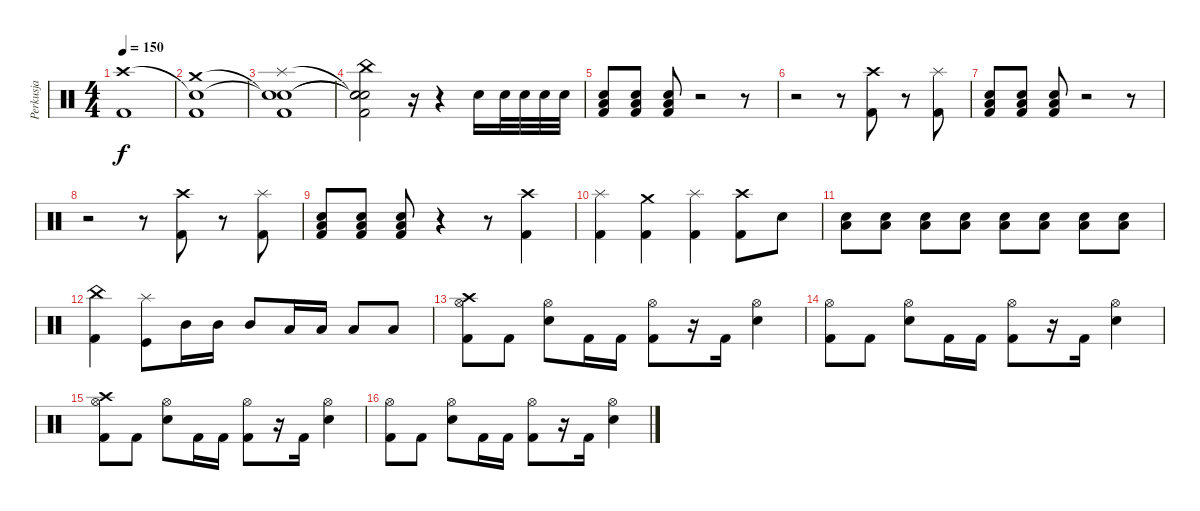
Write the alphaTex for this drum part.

\track ("Perkusja" "Perkusja") {instrument percussion}
\staff {score}
\articulation defaults
\ts (4 4)
\tempo 150
\clef neutral
\ks c
("Kick (hit) 2" "Crash high (hit)").1{dy f} |
("Kick (hit) 2" "Snare (hit)"{t} "Crash medium (hit)").1 |
("Kick (hit) 2" "Snare (hit)"{t} "Snare (hit)"{t} "Splash (hit)").1 |
("Kick (hit) 2" "Snare (hit)"{t} "Snare (hit)"{t} "Snare (hit)"{t} "China (hit)").2 r.16 r.4 "Electric Snare (hit)".16 "Electric Snare (hit)".32 "Electric Snare (hit)".32 "Electric Snare (hit)".32 "Electric Snare (hit)".32 |
("Kick (hit) 2" "Low Floor Tom (hit)" "Electric Snare (hit)").8 ("Kick (hit) 2" "Low Floor Tom (hit)" "Electric Snare (hit)").8 ("Kick (hit) 2" "Low Floor Tom (hit)" "Electric Snare (hit)").8 r.2 r.8 |
r.2 r.8 ("Kick (hit) 2" "Crash high (hit)").8 r.8 ("Kick (hit) 2" "Splash (hit)").8 |
("Kick (hit) 2" "Low Floor Tom (hit)" "Electric Snare (hit)").8 ("Kick (hit) 2" "Low Floor Tom (hit)" "Electric Snare (hit)").8 ("Kick (hit) 2" "Low Floor Tom (hit)" "Electric Snare (hit)").8 r.2 r.8 |
r.2 r.8 ("Kick (hit) 2" "Crash high (hit)").8 r.8 ("Kick (hit) 2" "Splash (hit)").8 |
("Kick (hit) 2" "Low Floor Tom (hit)" "Electric Snare (hit)").8 ("Kick (hit) 2" "Low Floor Tom (hit)" "Electric Snare (hit)").8 ("Kick (hit) 2" "Low Floor Tom (hit)" "Electric Snare (hit)").8 r.4 r.8 ("Kick (hit) 2" "Crash high (hit)").4 |
("Kick (hit) 2" "Splash (hit)").4 ("Kick (hit) 2" "Crash medium (hit)").4 ("Kick (hit) 2" "Splash (hit)").4 ("Kick (hit) 2" "Crash high (hit)").8 "Snare (hit) 2".8{volume 6} |
("Low Floor Tom (hit)" "Electric Snare (hit)").8{volume 16} ("Low Floor Tom (hit)" "Electric Snare (hit)").8 ("Low Floor Tom (hit)" "Electric Snare (hit)").8 ("Low Floor Tom (hit)" "Electric Snare (hit)").8 ("Low Floor Tom (hit)" "Electric Snare (hit)").8 ("Low Floor Tom (hit)" "Electric Snare (hit)").8 ("Low Floor Tom (hit)" "Electric Snare (hit)").8 ("Low Floor Tom (hit)" "Electric Snare (hit)").8 |
("Kick (hit) 2" "China (hit)").4 ("Kick (hit)" "Splash (hit)").8 "Mid Tom (hit)".16 "Mid Tom (hit)".16 "Mid Tom (hit)".8 "Low Tom (hit)".16 "Low Tom (hit)".16 "Low Tom (hit)".8 "Low Floor Tom (hit)".8 |
("Kick (hit) 2" "Hi-Hat (open)" "Crash high (hit)").8 "Kick (hit) 2".8 ("Electric Snare (hit)" "Hi-Hat (open)").8 "Kick (hit) 2".16 "Kick (hit) 2".16 ("Kick (hit) 2" "Hi-Hat (open)").8 r.16 "Kick (hit) 2".16 ("Electric Snare (hit)" "Hi-Hat (open)").4 |
("Kick (hit) 2" "Hi-Hat (open)").8 "Kick (hit) 2".8 ("Electric Snare (hit)" "Hi-Hat (open)").8 "Kick (hit) 2".16 "Kick (hit) 2".16 ("Kick (hit) 2" "Hi-Hat (open)").8 r.16 "Kick (hit) 2".16 ("Electric Snare (hit)" "Hi-Hat (open)").4 |
("Kick (hit) 2" "Hi-Hat (open)" "Crash high (hit)").8 "Kick (hit) 2".8 ("Electric Snare (hit)" "Hi-Hat (open)").8 "Kick (hit) 2".16 "Kick (hit) 2".16 ("Kick (hit) 2" "Hi-Hat (open)").8 r.16 "Kick (hit) 2".16 ("Electric Snare (hit)" "Hi-Hat (open)").4 |
("Kick (hit) 2" "Hi-Hat (open)").8 "Kick (hit) 2".8 ("Electric Snare (hit)" "Hi-Hat (open)").8 "Kick (hit) 2".16 "Kick (hit) 2".16 ("Kick (hit) 2" "Hi-Hat (open)").8 r.16 "Kick (hit) 2".16 ("Electric Snare (hit)" "Hi-Hat (open)").4
